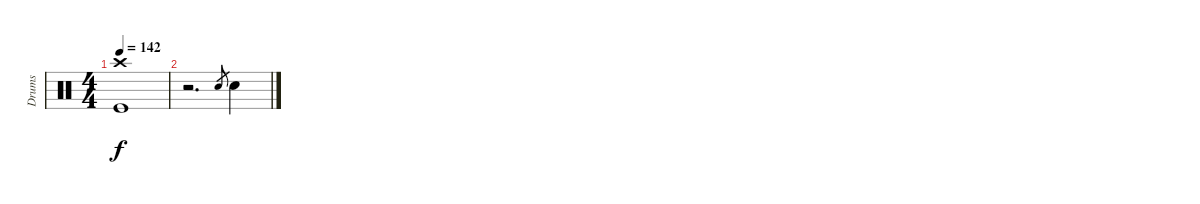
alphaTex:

\track ("Drums" "Drums") {instrument percussion}
\staff {score}
\articulation defaults
\ts (4 4)
\tempo 142
\clef neutral
\ks c
("Crash high (hit)" "Kick (hit)").1{dy f} |
r.2{d} "Snare (hit) 2".8{gr} "Snare (hit) 2".4
